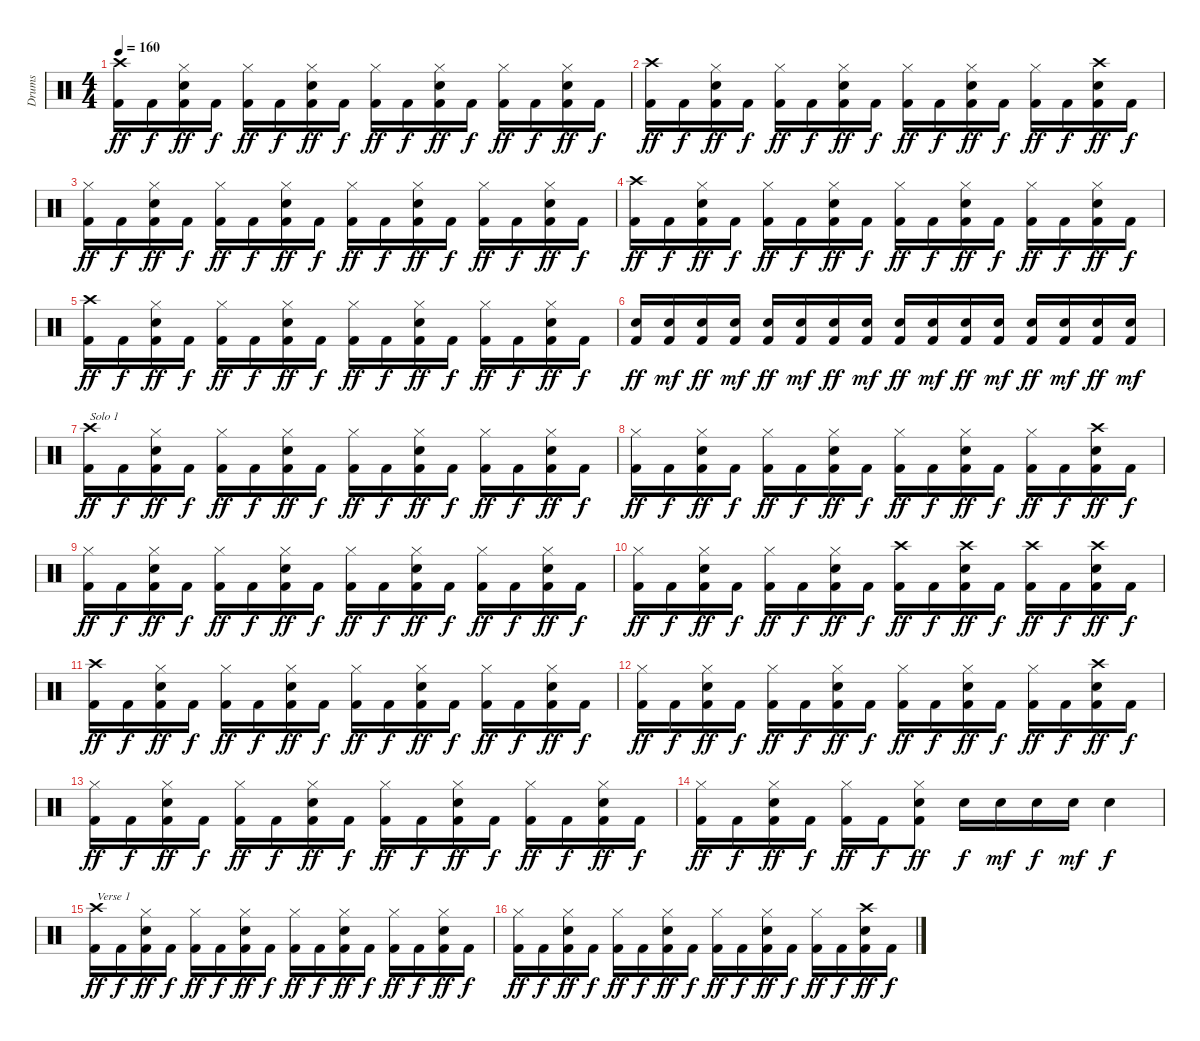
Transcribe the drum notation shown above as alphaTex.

\track ("Drums" "Drums") {instrument percussion}
\staff {score}
\articulation defaults
\ts (4 4)
\tempo 160
\clef neutral
\ks c
("Crash high (hit)" "Kick (hit) 2").16{dy ff} "Kick (hit) 2".16{dy f} ("Hi-Hat (closed)" "Snare (hit) 2" "Kick (hit) 2").16{dy ff} "Kick (hit) 2".16{dy f} ("Hi-Hat (closed)" "Kick (hit) 2").16{dy ff} "Kick (hit) 2".16{dy f} ("Hi-Hat (closed)" "Snare (hit) 2" "Kick (hit) 2").16{dy ff} "Kick (hit) 2".16{dy f} ("Hi-Hat (closed)" "Kick (hit) 2").16{dy ff} "Kick (hit) 2".16{dy f} ("Hi-Hat (closed)" "Snare (hit) 2" "Kick (hit) 2").16{dy ff} "Kick (hit) 2".16{dy f} ("Hi-Hat (closed)" "Kick (hit) 2").16{dy ff} "Kick (hit) 2".16{dy f} ("Hi-Hat (closed)" "Snare (hit) 2" "Kick (hit) 2").16{dy ff} "Kick (hit) 2".16{dy f} |
("Crash high (hit)" "Kick (hit) 2").16{dy ff} "Kick (hit) 2".16{dy f} ("Hi-Hat (closed)" "Snare (hit) 2" "Kick (hit) 2").16{dy ff} "Kick (hit) 2".16{dy f} ("Hi-Hat (closed)" "Kick (hit) 2").16{dy ff} "Kick (hit) 2".16{dy f} ("Hi-Hat (closed)" "Snare (hit) 2" "Kick (hit) 2").16{dy ff} "Kick (hit) 2".16{dy f} ("Hi-Hat (closed)" "Kick (hit) 2").16{dy ff} "Kick (hit) 2".16{dy f} ("Hi-Hat (closed)" "Snare (hit) 2" "Kick (hit) 2").16{dy ff} "Kick (hit) 2".16{dy f} ("Hi-Hat (closed)" "Kick (hit) 2").16{dy ff} "Kick (hit) 2".16{dy f} ("Crash high (hit)" "Snare (hit) 2" "Kick (hit) 2").16{dy ff} "Kick (hit) 2".16{dy f} |
("Hi-Hat (closed)" "Kick (hit) 2").16{dy ff} "Kick (hit) 2".16{dy f} ("Hi-Hat (closed)" "Snare (hit) 2" "Kick (hit) 2").16{dy ff} "Kick (hit) 2".16{dy f} ("Hi-Hat (closed)" "Kick (hit) 2").16{dy ff} "Kick (hit) 2".16{dy f} ("Hi-Hat (closed)" "Snare (hit) 2" "Kick (hit) 2").16{dy ff} "Kick (hit) 2".16{dy f} ("Hi-Hat (closed)" "Kick (hit) 2").16{dy ff} "Kick (hit) 2".16{dy f} ("Hi-Hat (closed)" "Snare (hit) 2" "Kick (hit) 2").16{dy ff} "Kick (hit) 2".16{dy f} ("Hi-Hat (closed)" "Kick (hit) 2").16{dy ff} "Kick (hit) 2".16{dy f} ("Hi-Hat (closed)" "Snare (hit) 2" "Kick (hit) 2").16{dy ff} "Kick (hit) 2".16{dy f} |
("Crash high (hit)" "Kick (hit) 2").16{dy ff} "Kick (hit) 2".16{dy f} ("Hi-Hat (closed)" "Snare (hit) 2" "Kick (hit) 2").16{dy ff} "Kick (hit) 2".16{dy f} ("Hi-Hat (closed)" "Kick (hit) 2").16{dy ff} "Kick (hit) 2".16{dy f} ("Hi-Hat (closed)" "Snare (hit) 2" "Kick (hit) 2").16{dy ff} "Kick (hit) 2".16{dy f} ("Hi-Hat (closed)" "Kick (hit) 2").16{dy ff} "Kick (hit) 2".16{dy f} ("Hi-Hat (closed)" "Snare (hit) 2" "Kick (hit) 2").16{dy ff} "Kick (hit) 2".16{dy f} ("Hi-Hat (closed)" "Kick (hit) 2").16{dy ff} "Kick (hit) 2".16{dy f} ("Hi-Hat (closed)" "Snare (hit) 2" "Kick (hit) 2").16{dy ff} "Kick (hit) 2".16{dy f} |
("Crash high (hit)" "Kick (hit) 2").16{dy ff} "Kick (hit) 2".16{dy f} ("Hi-Hat (closed)" "Snare (hit) 2" "Kick (hit) 2").16{dy ff} "Kick (hit) 2".16{dy f} ("Hi-Hat (closed)" "Kick (hit) 2").16{dy ff} "Kick (hit) 2".16{dy f} ("Hi-Hat (closed)" "Snare (hit) 2" "Kick (hit) 2").16{dy ff} "Kick (hit) 2".16{dy f} ("Hi-Hat (closed)" "Kick (hit) 2").16{dy ff} "Kick (hit) 2".16{dy f} ("Hi-Hat (closed)" "Snare (hit) 2" "Kick (hit) 2").16{dy ff} "Kick (hit) 2".16{dy f} ("Hi-Hat (closed)" "Kick (hit) 2").16{dy ff} "Kick (hit) 2".16{dy f} ("Hi-Hat (closed)" "Snare (hit) 2" "Kick (hit) 2").16{dy ff} "Kick (hit) 2".16{dy f} |
("Snare (hit) 2" "Kick (hit) 2").16{dy ff} ("Snare (hit) 2" "Kick (hit) 2").16{dy mf} ("Snare (hit) 2" "Kick (hit) 2").16{dy ff} ("Snare (hit) 2" "Kick (hit) 2").16{dy mf} ("Snare (hit) 2" "Kick (hit) 2").16{dy ff} ("Snare (hit) 2" "Kick (hit) 2").16{dy mf} ("Snare (hit) 2" "Kick (hit) 2").16{dy ff} ("Snare (hit) 2" "Kick (hit) 2").16{dy mf} ("Snare (hit) 2" "Kick (hit) 2").16{dy ff} ("Snare (hit) 2" "Kick (hit) 2").16{dy mf} ("Snare (hit) 2" "Kick (hit) 2").16{dy ff} ("Snare (hit) 2" "Kick (hit) 2").16{dy mf} ("Snare (hit) 2" "Kick (hit) 2").16{dy ff} ("Snare (hit) 2" "Kick (hit) 2").16{dy mf} ("Snare (hit) 2" "Kick (hit) 2").16{dy ff} ("Snare (hit) 2" "Kick (hit) 2").16{dy mf} |
("Crash high (hit)" "Kick (hit) 2").16{txt "Solo 1" dy ff} "Kick (hit) 2".16{dy f} ("Hi-Hat (closed)" "Snare (hit) 2" "Kick (hit) 2").16{dy ff} "Kick (hit) 2".16{dy f} ("Hi-Hat (closed)" "Kick (hit) 2").16{dy ff} "Kick (hit) 2".16{dy f} ("Hi-Hat (closed)" "Snare (hit) 2" "Kick (hit) 2").16{dy ff} "Kick (hit) 2".16{dy f} ("Hi-Hat (closed)" "Kick (hit) 2").16{dy ff} "Kick (hit) 2".16{dy f} ("Hi-Hat (closed)" "Snare (hit) 2" "Kick (hit) 2").16{dy ff} "Kick (hit) 2".16{dy f} ("Hi-Hat (closed)" "Kick (hit) 2").16{dy ff} "Kick (hit) 2".16{dy f} ("Hi-Hat (closed)" "Snare (hit) 2" "Kick (hit) 2").16{dy ff} "Kick (hit) 2".16{dy f} |
("Hi-Hat (closed)" "Kick (hit) 2").16{dy ff} "Kick (hit) 2".16{dy f} ("Hi-Hat (closed)" "Snare (hit) 2" "Kick (hit) 2").16{dy ff} "Kick (hit) 2".16{dy f} ("Hi-Hat (closed)" "Kick (hit) 2").16{dy ff} "Kick (hit) 2".16{dy f} ("Hi-Hat (closed)" "Snare (hit) 2" "Kick (hit) 2").16{dy ff} "Kick (hit) 2".16{dy f} ("Hi-Hat (closed)" "Kick (hit) 2").16{dy ff} "Kick (hit) 2".16{dy f} ("Hi-Hat (closed)" "Snare (hit) 2" "Kick (hit) 2").16{dy ff} "Kick (hit) 2".16{dy f} ("Hi-Hat (closed)" "Kick (hit) 2").16{dy ff} "Kick (hit) 2".16{dy f} ("Crash high (hit)" "Snare (hit) 2" "Kick (hit) 2").16{dy ff} "Kick (hit) 2".16{dy f} |
("Hi-Hat (closed)" "Kick (hit) 2").16{dy ff} "Kick (hit) 2".16{dy f} ("Hi-Hat (closed)" "Snare (hit) 2" "Kick (hit) 2").16{dy ff} "Kick (hit) 2".16{dy f} ("Hi-Hat (closed)" "Kick (hit) 2").16{dy ff} "Kick (hit) 2".16{dy f} ("Hi-Hat (closed)" "Snare (hit) 2" "Kick (hit) 2").16{dy ff} "Kick (hit) 2".16{dy f} ("Hi-Hat (closed)" "Kick (hit) 2").16{dy ff} "Kick (hit) 2".16{dy f} ("Hi-Hat (closed)" "Snare (hit) 2" "Kick (hit) 2").16{dy ff} "Kick (hit) 2".16{dy f} ("Hi-Hat (closed)" "Kick (hit) 2").16{dy ff} "Kick (hit) 2".16{dy f} ("Hi-Hat (closed)" "Snare (hit) 2" "Kick (hit) 2").16{dy ff} "Kick (hit) 2".16{dy f} |
("Hi-Hat (closed)" "Kick (hit) 2").16{dy ff} "Kick (hit) 2".16{dy f} ("Hi-Hat (closed)" "Snare (hit) 2" "Kick (hit) 2").16{dy ff} "Kick (hit) 2".16{dy f} ("Hi-Hat (closed)" "Kick (hit) 2").16{dy ff} "Kick (hit) 2".16{dy f} ("Hi-Hat (closed)" "Snare (hit) 2" "Kick (hit) 2").16{dy ff} "Kick (hit) 2".16{dy f} ("Crash high (hit)" "Kick (hit) 2").16{dy ff} "Kick (hit) 2".16{dy f} ("Crash high (hit)" "Snare (hit) 2" "Kick (hit) 2").16{dy ff} "Kick (hit) 2".16{dy f} ("Crash high (hit)" "Kick (hit) 2").16{dy ff} "Kick (hit) 2".16{dy f} ("Crash high (hit)" "Snare (hit) 2" "Kick (hit) 2").16{dy ff} "Kick (hit) 2".16{dy f} |
("Crash high (hit)" "Kick (hit) 2").16{dy ff} "Kick (hit) 2".16{dy f} ("Hi-Hat (closed)" "Snare (hit) 2" "Kick (hit) 2").16{dy ff} "Kick (hit) 2".16{dy f} ("Hi-Hat (closed)" "Kick (hit) 2").16{dy ff} "Kick (hit) 2".16{dy f} ("Hi-Hat (closed)" "Snare (hit) 2" "Kick (hit) 2").16{dy ff} "Kick (hit) 2".16{dy f} ("Hi-Hat (closed)" "Kick (hit) 2").16{dy ff} "Kick (hit) 2".16{dy f} ("Hi-Hat (closed)" "Snare (hit) 2" "Kick (hit) 2").16{dy ff} "Kick (hit) 2".16{dy f} ("Hi-Hat (closed)" "Kick (hit) 2").16{dy ff} "Kick (hit) 2".16{dy f} ("Hi-Hat (closed)" "Snare (hit) 2" "Kick (hit) 2").16{dy ff} "Kick (hit) 2".16{dy f} |
("Hi-Hat (closed)" "Kick (hit) 2").16{dy ff} "Kick (hit) 2".16{dy f} ("Hi-Hat (closed)" "Snare (hit) 2" "Kick (hit) 2").16{dy ff} "Kick (hit) 2".16{dy f} ("Hi-Hat (closed)" "Kick (hit) 2").16{dy ff} "Kick (hit) 2".16{dy f} ("Hi-Hat (closed)" "Snare (hit) 2" "Kick (hit) 2").16{dy ff} "Kick (hit) 2".16{dy f} ("Hi-Hat (closed)" "Kick (hit) 2").16{dy ff} "Kick (hit) 2".16{dy f} ("Hi-Hat (closed)" "Snare (hit) 2" "Kick (hit) 2").16{dy ff} "Kick (hit) 2".16{dy f} ("Hi-Hat (closed)" "Kick (hit) 2").16{dy ff} "Kick (hit) 2".16{dy f} ("Crash high (hit)" "Snare (hit) 2" "Kick (hit) 2").16{dy ff} "Kick (hit) 2".16{dy f} |
("Hi-Hat (closed)" "Kick (hit) 2").16{dy ff} "Kick (hit) 2".16{dy f} ("Hi-Hat (closed)" "Snare (hit) 2" "Kick (hit) 2").16{dy ff} "Kick (hit) 2".16{dy f} ("Hi-Hat (closed)" "Kick (hit) 2").16{dy ff} "Kick (hit) 2".16{dy f} ("Hi-Hat (closed)" "Snare (hit) 2" "Kick (hit) 2").16{dy ff} "Kick (hit) 2".16{dy f} ("Hi-Hat (closed)" "Kick (hit) 2").16{dy ff} "Kick (hit) 2".16{dy f} ("Hi-Hat (closed)" "Snare (hit) 2" "Kick (hit) 2").16{dy ff} "Kick (hit) 2".16{dy f} ("Hi-Hat (closed)" "Kick (hit) 2").16{dy ff} "Kick (hit) 2".16{dy f} ("Hi-Hat (closed)" "Snare (hit) 2" "Kick (hit) 2").16{dy ff} "Kick (hit) 2".16{dy f} |
("Hi-Hat (closed)" "Kick (hit) 2").16{dy ff} "Kick (hit) 2".16{dy f} ("Hi-Hat (closed)" "Snare (hit) 2" "Kick (hit) 2").16{dy ff} "Kick (hit) 2".16{dy f} ("Hi-Hat (closed)" "Kick (hit) 2").16{dy ff} "Kick (hit) 2".16{dy f} ("Hi-Hat (closed)" "Snare (hit) 2" "Kick (hit) 2").8{dy ff} "Snare (hit) 2".16{dy f} "Snare (hit) 2".16{dy mf} "Snare (hit) 2".16{dy f} "Snare (hit) 2".16{dy mf} "Snare (hit) 2".4{dy f} |
("Crash high (hit)" "Kick (hit) 2").16{txt "Verse 1" dy ff} "Kick (hit) 2".16{dy f} ("Hi-Hat (closed)" "Snare (hit) 2" "Kick (hit) 2").16{dy ff} "Kick (hit) 2".16{dy f} ("Hi-Hat (closed)" "Kick (hit) 2").16{dy ff} "Kick (hit) 2".16{dy f} ("Hi-Hat (closed)" "Snare (hit) 2" "Kick (hit) 2").16{dy ff} "Kick (hit) 2".16{dy f} ("Hi-Hat (closed)" "Kick (hit) 2").16{dy ff} "Kick (hit) 2".16{dy f} ("Hi-Hat (closed)" "Snare (hit) 2" "Kick (hit) 2").16{dy ff} "Kick (hit) 2".16{dy f} ("Hi-Hat (closed)" "Kick (hit) 2").16{dy ff} "Kick (hit) 2".16{dy f} ("Hi-Hat (closed)" "Snare (hit) 2" "Kick (hit) 2").16{dy ff} "Kick (hit) 2".16{dy f} |
("Hi-Hat (closed)" "Kick (hit) 2").16{dy ff} "Kick (hit) 2".16{dy f} ("Hi-Hat (closed)" "Snare (hit) 2" "Kick (hit) 2").16{dy ff} "Kick (hit) 2".16{dy f} ("Hi-Hat (closed)" "Kick (hit) 2").16{dy ff} "Kick (hit) 2".16{dy f} ("Hi-Hat (closed)" "Snare (hit) 2" "Kick (hit) 2").16{dy ff} "Kick (hit) 2".16{dy f} ("Hi-Hat (closed)" "Kick (hit) 2").16{dy ff} "Kick (hit) 2".16{dy f} ("Hi-Hat (closed)" "Snare (hit) 2" "Kick (hit) 2").16{dy ff} "Kick (hit) 2".16{dy f} ("Hi-Hat (closed)" "Kick (hit) 2").16{dy ff} "Kick (hit) 2".16{dy f} ("Crash high (hit)" "Snare (hit) 2" "Kick (hit) 2").16{dy ff} "Kick (hit) 2".16{dy f}
